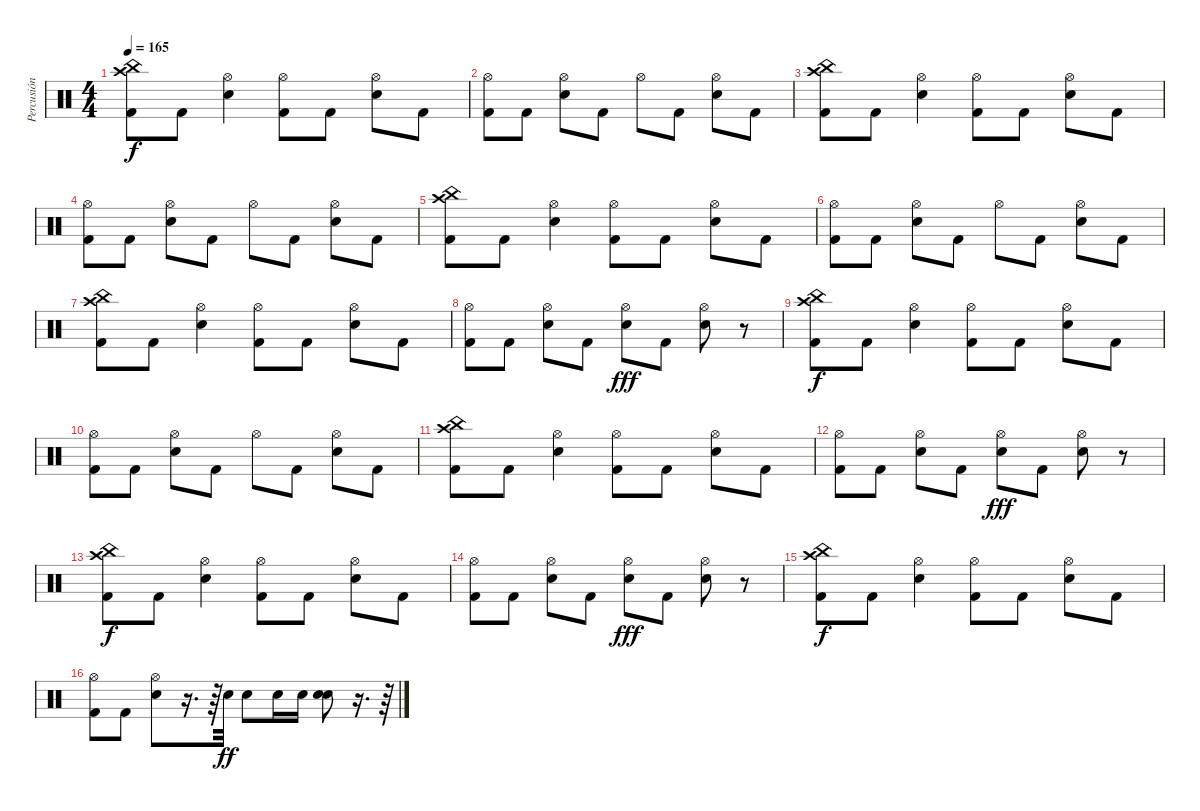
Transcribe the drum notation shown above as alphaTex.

\track ("Percusión" "Percusión") {instrument percussion}
\staff {score}
\articulation defaults
\ts (4 4)
\tempo 165
\clef neutral
\ks c
("China (hit)" "Kick (hit) 2" "Crash high (hit)").8{dy f} "Kick (hit) 2".8 ("Electric Snare (hit)" "Hi-Hat (open)").4 ("Kick (hit) 2" "Hi-Hat (open)").8 "Kick (hit) 2".8 ("Electric Snare (hit)" "Hi-Hat (open)").8 "Kick (hit) 2".8 |
("Kick (hit) 2" "Hi-Hat (open)").8 "Kick (hit) 2".8 ("Electric Snare (hit)" "Hi-Hat (open)").8 "Kick (hit) 2".8 "Hi-Hat (open)".8 "Kick (hit) 2".8 ("Electric Snare (hit)" "Hi-Hat (open)").8 "Kick (hit) 2".8 |
("China (hit)" "Kick (hit) 2" "Crash high (hit)").8 "Kick (hit) 2".8 ("Electric Snare (hit)" "Hi-Hat (open)").4 ("Kick (hit) 2" "Hi-Hat (open)").8 "Kick (hit) 2".8 ("Electric Snare (hit)" "Hi-Hat (open)").8 "Kick (hit) 2".8 |
("Kick (hit) 2" "Hi-Hat (open)").8 "Kick (hit) 2".8 ("Electric Snare (hit)" "Hi-Hat (open)").8 "Kick (hit) 2".8 "Hi-Hat (open)".8 "Kick (hit) 2".8 ("Electric Snare (hit)" "Hi-Hat (open)").8 "Kick (hit) 2".8 |
("China (hit)" "Kick (hit) 2" "Crash high (hit)").8 "Kick (hit) 2".8 ("Electric Snare (hit)" "Hi-Hat (open)").4 ("Kick (hit) 2" "Hi-Hat (open)").8 "Kick (hit) 2".8 ("Electric Snare (hit)" "Hi-Hat (open)").8 "Kick (hit) 2".8 |
("Kick (hit) 2" "Hi-Hat (open)").8 "Kick (hit) 2".8 ("Electric Snare (hit)" "Hi-Hat (open)").8 "Kick (hit) 2".8 "Hi-Hat (open)".8 "Kick (hit) 2".8 ("Electric Snare (hit)" "Hi-Hat (open)").8 "Kick (hit) 2".8 |
("China (hit)" "Kick (hit) 2" "Crash high (hit)").8 "Kick (hit) 2".8 ("Electric Snare (hit)" "Hi-Hat (open)").4 ("Kick (hit) 2" "Hi-Hat (open)").8 "Kick (hit) 2".8 ("Electric Snare (hit)" "Hi-Hat (open)").8 "Kick (hit) 2".8 |
("Kick (hit) 2" "Hi-Hat (open)").8 "Kick (hit) 2".8 ("Electric Snare (hit)" "Hi-Hat (open)").8 "Kick (hit) 2".8 ("Electric Snare (hit)" "Hi-Hat (open)").8{dy fff} "Kick (hit) 2".8 ("Electric Snare (hit)" "Hi-Hat (open)").8 r.8 |
("China (hit)" "Kick (hit) 2" "Crash high (hit)").8{dy f} "Kick (hit) 2".8 ("Electric Snare (hit)" "Hi-Hat (open)").4 ("Kick (hit) 2" "Hi-Hat (open)").8 "Kick (hit) 2".8 ("Electric Snare (hit)" "Hi-Hat (open)").8 "Kick (hit) 2".8 |
("Kick (hit) 2" "Hi-Hat (open)").8 "Kick (hit) 2".8 ("Electric Snare (hit)" "Hi-Hat (open)").8 "Kick (hit) 2".8 "Hi-Hat (open)".8 "Kick (hit) 2".8 ("Electric Snare (hit)" "Hi-Hat (open)").8 "Kick (hit) 2".8 |
("China (hit)" "Kick (hit) 2" "Crash high (hit)").8 "Kick (hit) 2".8 ("Electric Snare (hit)" "Hi-Hat (open)").4 ("Kick (hit) 2" "Hi-Hat (open)").8 "Kick (hit) 2".8 ("Electric Snare (hit)" "Hi-Hat (open)").8 "Kick (hit) 2".8 |
("Kick (hit) 2" "Hi-Hat (open)").8 "Kick (hit) 2".8 ("Electric Snare (hit)" "Hi-Hat (open)").8 "Kick (hit) 2".8 ("Electric Snare (hit)" "Hi-Hat (open)").8{dy fff} "Kick (hit) 2".8 ("Electric Snare (hit)" "Hi-Hat (open)").8 r.8 |
("China (hit)" "Kick (hit) 2" "Crash high (hit)").8{dy f} "Kick (hit) 2".8 ("Electric Snare (hit)" "Hi-Hat (open)").4 ("Kick (hit) 2" "Hi-Hat (open)").8 "Kick (hit) 2".8 ("Electric Snare (hit)" "Hi-Hat (open)").8 "Kick (hit) 2".8 |
("Kick (hit) 2" "Hi-Hat (open)").8 "Kick (hit) 2".8 ("Electric Snare (hit)" "Hi-Hat (open)").8 "Kick (hit) 2".8 ("Electric Snare (hit)" "Hi-Hat (open)").8{dy fff} "Kick (hit) 2".8 ("Electric Snare (hit)" "Hi-Hat (open)").8 r.8 |
("China (hit)" "Kick (hit) 2" "Crash high (hit)").8{dy f} "Kick (hit) 2".8 ("Electric Snare (hit)" "Hi-Hat (open)").4 ("Kick (hit) 2" "Hi-Hat (open)").8 "Kick (hit) 2".8 ("Electric Snare (hit)" "Hi-Hat (open)").8 "Kick (hit) 2".8 |
("Kick (hit) 2" "Hi-Hat (open)").8 "Kick (hit) 2".8 ("Electric Snare (hit)" "Hi-Hat (open)").8 r.16{d} r.64 "Electric Snare (hit)".32{dy ff} "Electric Snare (hit)".8 "Electric Snare (hit)".16 "Electric Snare (hit)".16 ("Snare (hit) 2" "Electric Snare (hit)").8 r.16{d} r.64
